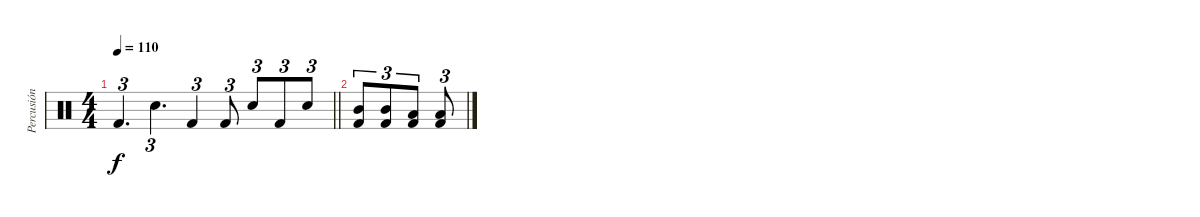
\track ("Percusión" "Percusión") {instrument percussion}
\staff {score}
\articulation defaults
\ts (4 4)
\tempo 110
\clef neutral
\barLineRight lightlight
\ks c "Kick (hit) 2".4{d tu (3 2) dy f} "Electric Snare (hit)".4{d tu (3 2)} "Kick (hit) 2".4{tu (3 2)} "Kick (hit) 2".8{tu (3 2)} "Electric Snare (hit)".8{tu (3 2)} "Kick (hit) 2".8{tu (3 2)} "Electric Snare (hit)".8{tu (3 2)}
|
("Mid Tom (hit)" "Kick (hit) 2").8{tu (3 2)} ("Mid Tom (hit)" "Kick (hit) 2").8{tu (3 2)} ("Low Tom (hit)" "Kick (hit) 2").8{tu (3 2)} ("Low Tom (hit)" "Kick (hit) 2").8{tu (3 2)}
